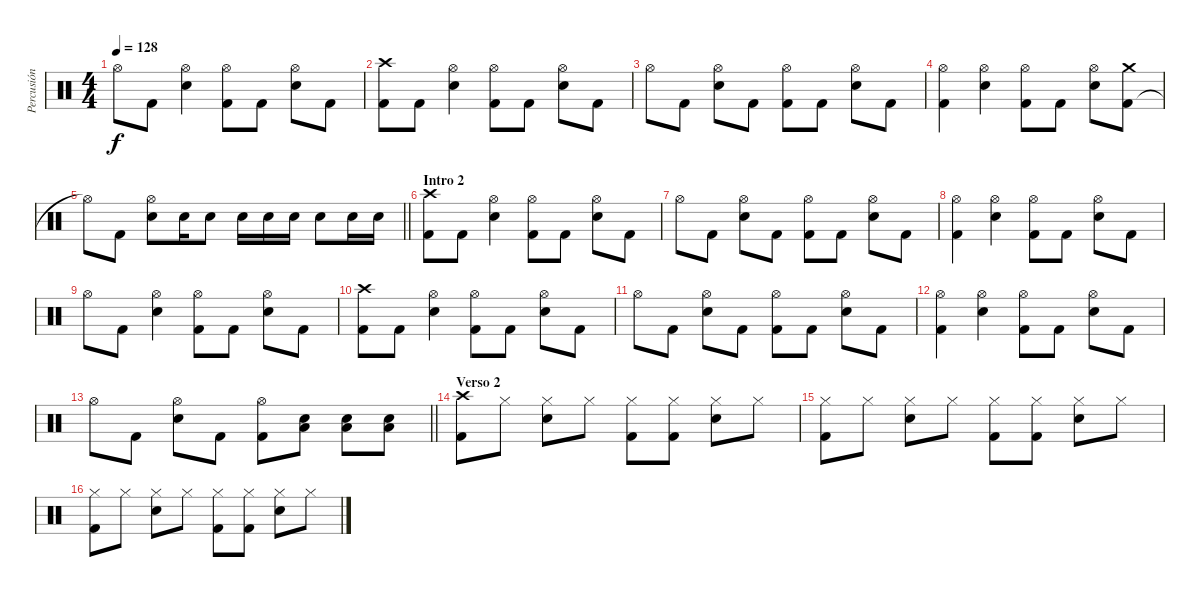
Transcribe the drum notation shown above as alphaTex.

\track ("Percusión" "Percusión") {instrument percussion}
\staff {score}
\articulation defaults
\ts (4 4)
\tempo 128
\clef neutral
\ks c "Hi-Hat (open)"{t}.8{dy f} "Kick (hit) 2".8
("Electric Snare (hit)" "Hi-Hat (open)").4 ("Kick (hit) 2" "Hi-Hat (open)").8 "Kick (hit) 2".8 ("Electric Snare (hit)" "Hi-Hat (open)").8 "Kick (hit) 2".8 |
("Kick (hit) 2" "Crash high (hit)").8 "Kick (hit) 2".8 ("Electric Snare (hit)" "Hi-Hat (open)").4 ("Kick (hit) 2" "Hi-Hat (open)").8 "Kick (hit) 2".8 ("Electric Snare (hit)" "Hi-Hat (open)").8 "Kick (hit) 2".8 |
"Hi-Hat (open)".8 "Kick (hit) 2".8 ("Electric Snare (hit)" "Hi-Hat (open)").8 "Kick (hit) 2".8 ("Kick (hit) 2" "Hi-Hat (open)").8 "Kick (hit) 2".8 ("Electric Snare (hit)" "Hi-Hat (open)").8 "Kick (hit) 2".8 |
("Kick (hit) 2" "Hi-Hat (open)").4 ("Electric Snare (hit)" "Hi-Hat (open)").4 ("Kick (hit) 2" "Hi-Hat (open)").8 "Kick (hit) 2".8 ("Electric Snare (hit)" "Hi-Hat (open)").8 ("Kick (hit) 2" "Crash medium (hit)").8 |
\barLineRight lightlight "Hi-Hat (open)"{t}.8 "Kick (hit) 2".8
("Electric Snare (hit)" "Hi-Hat (open)").8 "Electric Snare (hit)".16 "Electric Snare (hit)".8 "Electric Snare (hit)".16 "Electric Snare (hit)".16 "Electric Snare (hit)".16 "Electric Snare (hit)".8 "Electric Snare (hit)".16 "Electric Snare (hit)".16 |
\section ("" "Intro 2")
("Kick (hit) 2" "Crash high (hit)").8 "Kick (hit) 2".8 ("Electric Snare (hit)" "Hi-Hat (open)").4 ("Kick (hit) 2" "Hi-Hat (open)").8 "Kick (hit) 2".8 ("Electric Snare (hit)" "Hi-Hat (open)").8 "Kick (hit) 2".8 |
"Hi-Hat (open)".8 "Kick (hit) 2".8 ("Electric Snare (hit)" "Hi-Hat (open)").8 "Kick (hit) 2".8 ("Kick (hit) 2" "Hi-Hat (open)").8 "Kick (hit) 2".8 ("Electric Snare (hit)" "Hi-Hat (open)").8 "Kick (hit) 2".8 |
("Kick (hit) 2" "Hi-Hat (open)").4 ("Electric Snare (hit)" "Hi-Hat (open)").4 ("Kick (hit) 2" "Hi-Hat (open)").8 "Kick (hit) 2".8 ("Electric Snare (hit)" "Hi-Hat (open)").8 "Kick (hit) 2".8 |
"Hi-Hat (open)".8 "Kick (hit) 2".8 ("Electric Snare (hit)" "Hi-Hat (open)").4 ("Kick (hit) 2" "Hi-Hat (open)").8 "Kick (hit) 2".8 ("Electric Snare (hit)" "Hi-Hat (open)").8 "Kick (hit) 2".8 |
("Kick (hit) 2" "Crash high (hit)").8 "Kick (hit) 2".8 ("Electric Snare (hit)" "Hi-Hat (open)").4 ("Kick (hit) 2" "Hi-Hat (open)").8 "Kick (hit) 2".8 ("Electric Snare (hit)" "Hi-Hat (open)").8 "Kick (hit) 2".8 |
"Hi-Hat (open)".8 "Kick (hit) 2".8 ("Electric Snare (hit)" "Hi-Hat (open)").8 "Kick (hit) 2".8 ("Kick (hit) 2" "Hi-Hat (open)").8 "Kick (hit) 2".8 ("Electric Snare (hit)" "Hi-Hat (open)").8 "Kick (hit) 2".8 |
("Kick (hit) 2" "Hi-Hat (open)").4 ("Electric Snare (hit)" "Hi-Hat (open)").4 ("Kick (hit) 2" "Hi-Hat (open)").8 "Kick (hit) 2".8 ("Electric Snare (hit)" "Hi-Hat (open)").8 "Kick (hit) 2".8 |
\barLineRight lightlight "Hi-Hat (open)".8 "Kick (hit) 2".8
("Electric Snare (hit)" "Hi-Hat (open)").8 "Kick (hit) 2".8 ("Kick (hit) 2" "Hi-Hat (open)").8 ("Low Floor Tom (hit)" "Electric Snare (hit)").8 ("Low Floor Tom (hit)" "Electric Snare (hit)").8 ("Low Floor Tom (hit)" "Electric Snare (hit)").8 |
\section ("" "Verso 2")
("Kick (hit) 2" "Crash high (hit)").8 "Hi-Hat (closed)".8 ("Electric Snare (hit)" "Hi-Hat (closed)").8 "Hi-Hat (closed)".8 ("Kick (hit) 2" "Hi-Hat (closed)").8 ("Kick (hit) 2" "Hi-Hat (closed)").8 ("Electric Snare (hit)" "Hi-Hat (closed)").8 "Hi-Hat (closed)".8 |
("Kick (hit) 2" "Hi-Hat (closed)").8 "Hi-Hat (closed)".8 ("Electric Snare (hit)" "Hi-Hat (closed)").8 "Hi-Hat (closed)".8 ("Kick (hit) 2" "Hi-Hat (closed)").8 ("Kick (hit) 2" "Hi-Hat (closed)").8 ("Electric Snare (hit)" "Hi-Hat (closed)").8 "Hi-Hat (closed)".8 |
("Kick (hit) 2" "Hi-Hat (closed)").8 "Hi-Hat (closed)".8 ("Electric Snare (hit)" "Hi-Hat (closed)").8 "Hi-Hat (closed)".8 ("Kick (hit) 2" "Hi-Hat (closed)").8 ("Kick (hit) 2" "Hi-Hat (closed)").8 ("Electric Snare (hit)" "Hi-Hat (closed)").8 "Hi-Hat (closed)".8
